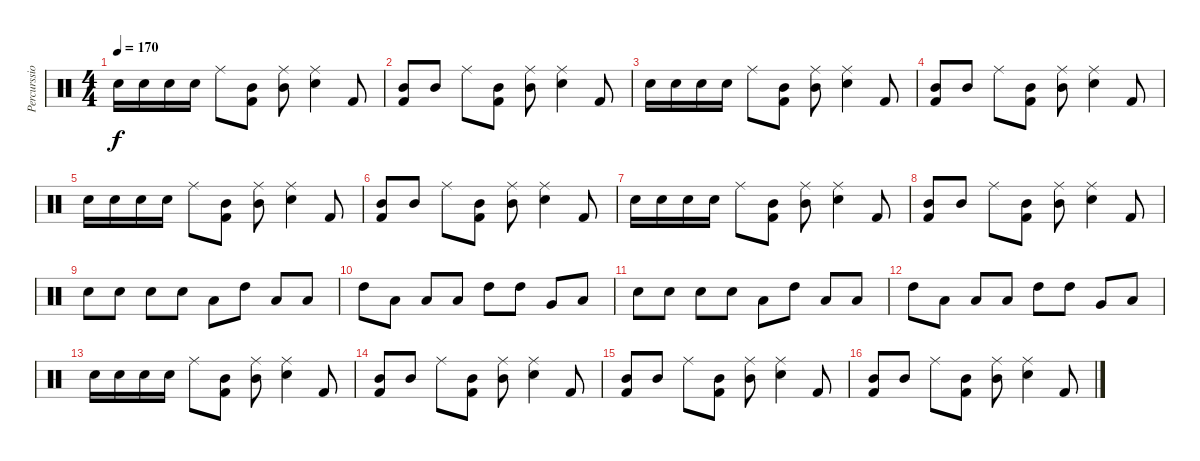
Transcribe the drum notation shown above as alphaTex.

\track ("Percurssion" "Percurssio") {instrument percussion}
\staff {score}
\articulation defaults
\ts (4 4)
\tempo 170
\clef neutral
\ks c "Electric Snare (hit)".16{dy f} "Electric Snare (hit)".16 "Electric Snare (hit)".16 "Electric Snare (hit)".16 "Ride (middle)".8
("Mid Tom (hit)" "Kick (hit) 2").8 ("Mid Tom (hit)" "Ride (middle)").8 ("Ride (middle)" "Electric Snare (hit)").4 "Kick (hit) 2".8 |
("Mid Tom (hit)" "Kick (hit) 2").8 "Mid Tom (hit)".8 "Ride (middle)".8 ("Mid Tom (hit)" "Kick (hit) 2").8 ("Mid Tom (hit)" "Ride (middle)").8 ("Ride (middle)" "Electric Snare (hit)").4 "Kick (hit) 2".8 |
"Electric Snare (hit)".16 "Electric Snare (hit)".16 "Electric Snare (hit)".16 "Electric Snare (hit)".16 "Ride (middle)".8 ("Mid Tom (hit)" "Kick (hit) 2").8 ("Mid Tom (hit)" "Ride (middle)").8 ("Ride (middle)" "Electric Snare (hit)").4 "Kick (hit) 2".8 |
("Mid Tom (hit)" "Kick (hit) 2").8 "Mid Tom (hit)".8 "Ride (middle)".8 ("Mid Tom (hit)" "Kick (hit) 2").8 ("Mid Tom (hit)" "Ride (middle)").8 ("Ride (middle)" "Electric Snare (hit)").4 "Kick (hit) 2".8 |
"Electric Snare (hit)".16 "Electric Snare (hit)".16 "Electric Snare (hit)".16 "Electric Snare (hit)".16 "Ride (middle)".8 ("Mid Tom (hit)" "Kick (hit) 2").8 ("Mid Tom (hit)" "Ride (middle)").8 ("Ride (middle)" "Electric Snare (hit)").4 "Kick (hit) 2".8 |
("Mid Tom (hit)" "Kick (hit) 2").8 "Mid Tom (hit)".8 "Ride (middle)".8 ("Mid Tom (hit)" "Kick (hit) 2").8 ("Mid Tom (hit)" "Ride (middle)").8 ("Ride (middle)" "Electric Snare (hit)").4 "Kick (hit) 2".8 |
"Electric Snare (hit)".16 "Electric Snare (hit)".16 "Electric Snare (hit)".16 "Electric Snare (hit)".16 "Ride (middle)".8 ("Mid Tom (hit)" "Kick (hit) 2").8 ("Mid Tom (hit)" "Ride (middle)").8 ("Ride (middle)" "Electric Snare (hit)").4 "Kick (hit) 2".8 |
("Mid Tom (hit)" "Kick (hit) 2").8 "Mid Tom (hit)".8 "Ride (middle)".8 ("Mid Tom (hit)" "Kick (hit) 2").8 ("Mid Tom (hit)" "Ride (middle)").8 ("Ride (middle)" "Electric Snare (hit)").4 "Kick (hit) 2".8 |
"Electric Snare (hit)".8 "Electric Snare (hit)".8 "Snare (hit) 2".8 "Snare (hit) 2".8 "Low Tom (hit)".8 "High Tom (hit)".8 "Low Floor Tom (hit)".8 "Low Floor Tom (hit)".8 |
"High Tom (hit)".8 "Low Tom (hit)".8 "Low Tom (hit)".8 "Low Tom (hit)".8 "High Tom (hit)".8 "High Tom (hit)".8 "Very Low Tom (hit)".8 "Low Floor Tom (hit)".8 |
"Electric Snare (hit)".8 "Electric Snare (hit)".8 "Snare (hit) 2".8 "Snare (hit) 2".8 "Low Tom (hit)".8 "High Tom (hit)".8 "Low Floor Tom (hit)".8 "Low Floor Tom (hit)".8 |
"High Tom (hit)".8 "Low Tom (hit)".8 "Low Tom (hit)".8 "Low Tom (hit)".8 "High Tom (hit)".8 "High Tom (hit)".8 "Very Low Tom (hit)".8 "Low Floor Tom (hit)".8 |
"Electric Snare (hit)".16 "Electric Snare (hit)".16 "Electric Snare (hit)".16 "Electric Snare (hit)".16 "Ride (middle)".8 ("Mid Tom (hit)" "Kick (hit) 2").8 ("Mid Tom (hit)" "Ride (middle)").8 ("Ride (middle)" "Electric Snare (hit)").4 "Kick (hit) 2".8 |
("Mid Tom (hit)" "Kick (hit) 2").8 "Mid Tom (hit)".8 "Ride (middle)".8 ("Mid Tom (hit)" "Kick (hit) 2").8 ("Mid Tom (hit)" "Ride (middle)").8 ("Ride (middle)" "Electric Snare (hit)").4 "Kick (hit) 2".8 |
("Mid Tom (hit)" "Kick (hit) 2").8 "Mid Tom (hit)".8 "Ride (middle)".8 ("Mid Tom (hit)" "Kick (hit) 2").8 ("Mid Tom (hit)" "Ride (middle)").8 ("Ride (middle)" "Electric Snare (hit)").4 "Kick (hit) 2".8 |
("Mid Tom (hit)" "Kick (hit) 2").8 "Mid Tom (hit)".8 "Ride (middle)".8 ("Mid Tom (hit)" "Kick (hit) 2").8 ("Mid Tom (hit)" "Ride (middle)").8 ("Ride (middle)" "Electric Snare (hit)").4 "Kick (hit) 2".8
